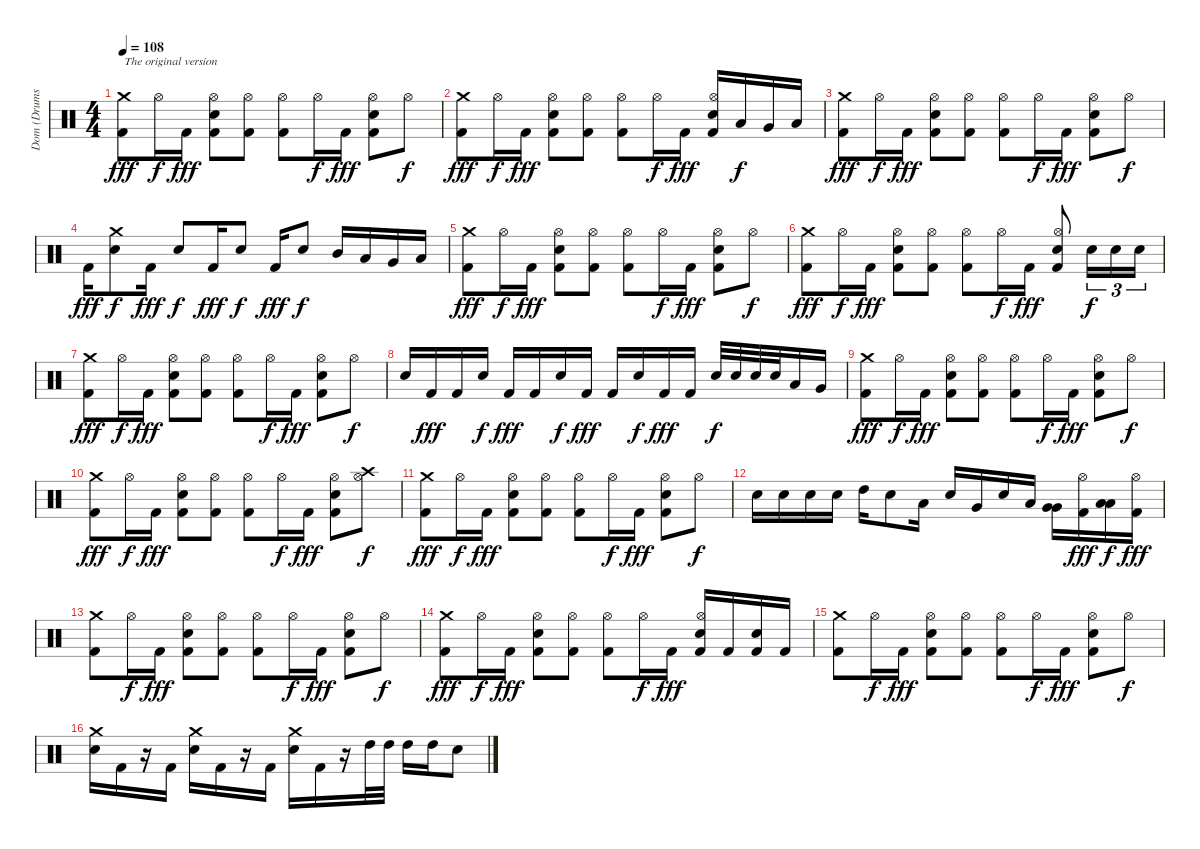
\track ("Dom (Drums)" "Dom (Drums") {instrument percussion}
\staff {score}
\articulation defaults
\ts (4 4)
\tempo 108
\clef neutral
\ks c
("Crash medium (hit)" "Kick (hit) 2").8{txt "The original version" dy fff} "Hi-Hat (open)".16{dy f} "Kick (hit) 2".16{dy fff} ("Hi-Hat (open)" "Snare (hit) 2" "Kick (hit) 2").8 ("Hi-Hat (open)" "Kick (hit) 2").8 ("Hi-Hat (open)" "Kick (hit) 2").8 "Hi-Hat (open)".16{dy f} "Kick (hit) 2".16{dy fff} ("Hi-Hat (open)" "Snare (hit) 2" "Kick (hit) 2").8 "Hi-Hat (open)".8{dy f} |
("Crash medium (hit)" "Kick (hit) 2").8{dy fff} "Hi-Hat (open)".16{dy f} "Kick (hit) 2".16{dy fff} ("Hi-Hat (open)" "Snare (hit) 2" "Kick (hit) 2").8 ("Hi-Hat (open)" "Kick (hit) 2").8 ("Hi-Hat (open)" "Kick (hit) 2").8 "Hi-Hat (open)".16{dy f} "Kick (hit) 2".16{dy fff} ("Hi-Hat (open)" "Snare (hit) 2" "Kick (hit) 2").16 "Low Tom (hit)".16{dy f} "Very Low Tom (hit)".16 "Low Floor Tom (hit)".16 |
("Crash medium (hit)" "Kick (hit) 2").8{dy fff} "Hi-Hat (open)".16{dy f} "Kick (hit) 2".16{dy fff} ("Hi-Hat (open)" "Snare (hit) 2" "Kick (hit) 2").8 ("Hi-Hat (open)" "Kick (hit) 2").8 ("Hi-Hat (open)" "Kick (hit) 2").8 "Hi-Hat (open)".16{dy f} "Kick (hit) 2".16{dy fff} ("Hi-Hat (open)" "Snare (hit) 2" "Kick (hit) 2").8 "Hi-Hat (open)".8{dy f} |
"Kick (hit) 2".16{dy fff} ("Crash medium (hit)" "Snare (hit) 2").8{dy f} "Kick (hit) 2".16{dy fff} "Snare (hit) 2".8{dy f} "Kick (hit) 2".16{dy fff} "Snare (hit) 2".8{dy f} "Kick (hit) 2".16{dy fff} "Snare (hit) 2".8{dy f} "Mid Tom (hit)".16 "Low Tom (hit)".16 "Very Low Tom (hit)".16 "Low Floor Tom (hit)".16 |
("Crash medium (hit)" "Kick (hit) 2").8{dy fff} "Hi-Hat (open)".16{dy f} "Kick (hit) 2".16{dy fff} ("Hi-Hat (open)" "Snare (hit) 2" "Kick (hit) 2").8 ("Hi-Hat (open)" "Kick (hit) 2").8 ("Hi-Hat (open)" "Kick (hit) 2").8 "Hi-Hat (open)".16{dy f} "Kick (hit) 2".16{dy fff} ("Hi-Hat (open)" "Snare (hit) 2" "Kick (hit) 2").8 "Hi-Hat (open)".8{dy f} |
("Crash medium (hit)" "Kick (hit) 2").8{dy fff} "Hi-Hat (open)".16{dy f} "Kick (hit) 2".16{dy fff} ("Hi-Hat (open)" "Snare (hit) 2" "Kick (hit) 2").8 ("Hi-Hat (open)" "Kick (hit) 2").8 ("Hi-Hat (open)" "Kick (hit) 2").8 "Hi-Hat (open)".16{dy f} "Kick (hit) 2".16{dy fff} ("Hi-Hat (open)" "Snare (hit) 2" "Kick (hit) 2").8 "Snare (hit) 2".16{tu (3 2) dy f} "Snare (hit) 2".16{tu (3 2)} "Snare (hit) 2".16{tu (3 2)} |
("Crash medium (hit)" "Kick (hit) 2").8{dy fff} "Hi-Hat (open)".16{dy f} "Kick (hit) 2".16{dy fff} ("Hi-Hat (open)" "Snare (hit) 2" "Kick (hit) 2").8 ("Hi-Hat (open)" "Kick (hit) 2").8 ("Hi-Hat (open)" "Kick (hit) 2").8 "Hi-Hat (open)".16{dy f} "Kick (hit) 2".16{dy fff} ("Hi-Hat (open)" "Snare (hit) 2" "Kick (hit) 2").8 "Hi-Hat (open)".8{dy f} |
"Snare (hit) 2".16 "Kick (hit) 2".16{dy fff} "Kick (hit) 2".16 "Snare (hit) 2".16{dy f} "Kick (hit) 2".16{dy fff} "Kick (hit) 2".16 "Snare (hit) 2".16{dy f} "Kick (hit) 2".16{dy fff} "Kick (hit) 2".16 "Snare (hit) 2".16{dy f} "Kick (hit) 2".16{dy fff} "Kick (hit) 2".16 "Snare (hit) 2".32{dy f} "Snare (hit) 2".32 "Snare (hit) 2".32 "Snare (hit) 2".32 "Low Tom (hit)".16 "Very Low Tom (hit)".16 |
("Crash medium (hit)" "Kick (hit) 2").8{dy fff} "Hi-Hat (open)".16{dy f} "Kick (hit) 2".16{dy fff} ("Hi-Hat (open)" "Snare (hit) 2" "Kick (hit) 2").8 ("Hi-Hat (open)" "Kick (hit) 2").8 ("Hi-Hat (open)" "Kick (hit) 2").8 "Hi-Hat (open)".16{dy f} "Kick (hit) 2".16{dy fff} ("Hi-Hat (open)" "Snare (hit) 2" "Kick (hit) 2").8 "Hi-Hat (open)".8{dy f} |
("Crash medium (hit)" "Kick (hit) 2").8{dy fff} "Hi-Hat (open)".16{dy f} "Kick (hit) 2".16{dy fff} ("Hi-Hat (open)" "Snare (hit) 2" "Kick (hit) 2").8 ("Hi-Hat (open)" "Kick (hit) 2").8 ("Hi-Hat (open)" "Kick (hit) 2").8 "Hi-Hat (open)".16{dy f} "Kick (hit) 2".16{dy fff} ("Hi-Hat (open)" "Snare (hit) 2" "Kick (hit) 2").8 ("Crash high (hit)" "Hi-Hat (open)").8{dy f} |
("Crash medium (hit)" "Kick (hit) 2").8{dy fff} "Hi-Hat (open)".16{dy f} "Kick (hit) 2".16{dy fff} ("Hi-Hat (open)" "Snare (hit) 2" "Kick (hit) 2").8 ("Hi-Hat (open)" "Kick (hit) 2").8 ("Hi-Hat (open)" "Kick (hit) 2").8 "Hi-Hat (open)".16{dy f} "Kick (hit) 2".16{dy fff} ("Hi-Hat (open)" "Snare (hit) 2" "Kick (hit) 2").8 "Hi-Hat (open)".8{dy f} |
"Snare (hit) 2".16 "Snare (hit) 2".16 "Snare (hit) 2".16 "Snare (hit) 2".16 "High Tom (hit)".16 "Snare (hit) 2".8 "Low Tom (hit)".16 "Snare (hit) 2".16 "Very Low Tom (hit)".16 "Snare (hit) 2".16 "Low Floor Tom (hit)".16 ("Very Low Tom (hit)" "Very Low Tom (hit)").16 ("Hi-Hat (open)" "Kick (hit) 2").16{dy fff} ("Low Floor Tom (hit)" "Low Floor Tom (hit)").16{dy f} ("Hi-Hat (open)" "Kick (hit) 2").16{dy fff} |
("Crash medium (hit)" "Kick (hit) 2").8 "Hi-Hat (open)".16{dy f} "Kick (hit) 2".16{dy fff} ("Hi-Hat (open)" "Snare (hit) 2" "Kick (hit) 2").8 ("Hi-Hat (open)" "Kick (hit) 2").8 ("Hi-Hat (open)" "Kick (hit) 2").8 "Hi-Hat (open)".16{dy f} "Kick (hit) 2".16{dy fff} ("Hi-Hat (open)" "Snare (hit) 2" "Kick (hit) 2").8 "Hi-Hat (open)".8{dy f} |
("Crash medium (hit)" "Kick (hit) 2").8{dy fff} "Hi-Hat (open)".16{dy f} "Kick (hit) 2".16{dy fff} ("Hi-Hat (open)" "Snare (hit) 2" "Kick (hit) 2").8 ("Hi-Hat (open)" "Kick (hit) 2").8 ("Hi-Hat (open)" "Kick (hit) 2").8 "Hi-Hat (open)".16{dy f} "Kick (hit) 2".16{dy fff} ("Hi-Hat (open)" "Snare (hit) 2" "Kick (hit) 2").16 "Kick (hit) 2".16 ("Snare (hit) 2" "Kick (hit) 2").16 "Kick (hit) 2".16 |
("Crash medium (hit)" "Kick (hit) 2").8 "Hi-Hat (open)".16{dy f} "Kick (hit) 2".16{dy fff} ("Hi-Hat (open)" "Snare (hit) 2" "Kick (hit) 2").8 ("Hi-Hat (open)" "Kick (hit) 2").8 ("Hi-Hat (open)" "Kick (hit) 2").8 "Hi-Hat (open)".16{dy f} "Kick (hit) 2".16{dy fff} ("Hi-Hat (open)" "Snare (hit) 2" "Kick (hit) 2").8 "Hi-Hat (open)".8{dy f} |
("Crash medium (hit)" "Snare (hit) 2").16 "Kick (hit) 2".16 r.16 "Kick (hit) 2".16 ("Crash medium (hit)" "Snare (hit) 2").16 "Kick (hit) 2".16 r.16 "Kick (hit) 2".16 ("Crash medium (hit)" "Snare (hit) 2").16 "Kick (hit) 2".16 r.16 "High Tom (hit)".32 "High Tom (hit)".32 "High Tom (hit)".16 "High Tom (hit)".16 "Snare (hit) 2".8
